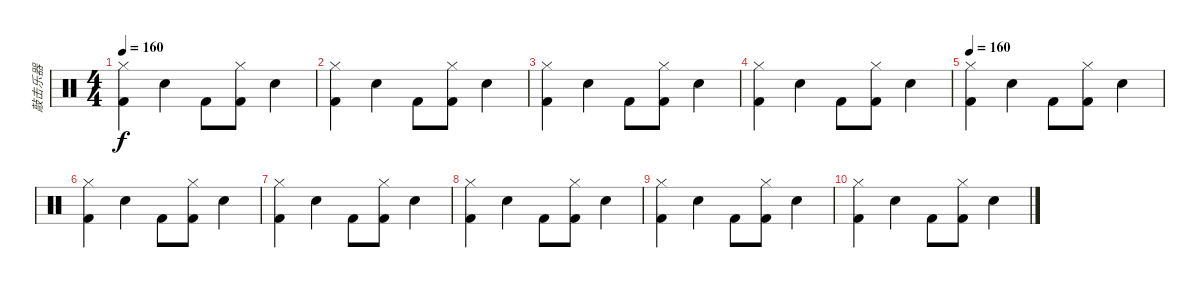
\track ("敲击乐器" "敲击乐器") {instrument percussion}
\staff {score}
\articulation defaults
\ts (4 4)
\tempo 160
\clef neutral
\ks c
("Hi-Hat (closed)" "Kick (hit) 2").4{dy f} "Electric Snare (hit)".4 "Kick (hit) 2".8 ("Hi-Hat (closed)" "Kick (hit) 2").8 "Electric Snare (hit)".4 |
("Hi-Hat (closed)" "Kick (hit) 2").4 "Electric Snare (hit)".4 "Kick (hit) 2".8 ("Hi-Hat (closed)" "Kick (hit) 2").8 "Electric Snare (hit)".4 |
("Hi-Hat (closed)" "Kick (hit) 2").4 "Electric Snare (hit)".4 "Kick (hit) 2".8 ("Hi-Hat (closed)" "Kick (hit) 2").8 "Electric Snare (hit)".4 |
("Hi-Hat (closed)" "Kick (hit) 2").4 "Electric Snare (hit)".4 "Kick (hit) 2".8 ("Hi-Hat (closed)" "Kick (hit) 2").8 "Electric Snare (hit)".4 |
\tempo 160
("Hi-Hat (closed)" "Kick (hit) 2").4 "Electric Snare (hit)".4 "Kick (hit) 2".8 ("Hi-Hat (closed)" "Kick (hit) 2").8 "Electric Snare (hit)".4 |
("Hi-Hat (closed)" "Kick (hit) 2").4 "Electric Snare (hit)".4 "Kick (hit) 2".8 ("Hi-Hat (closed)" "Kick (hit) 2").8 "Electric Snare (hit)".4 |
("Hi-Hat (closed)" "Kick (hit) 2").4 "Electric Snare (hit)".4 "Kick (hit) 2".8 ("Hi-Hat (closed)" "Kick (hit) 2").8 "Electric Snare (hit)".4 |
("Hi-Hat (closed)" "Kick (hit) 2").4 "Electric Snare (hit)".4 "Kick (hit) 2".8 ("Hi-Hat (closed)" "Kick (hit) 2").8 "Electric Snare (hit)".4 |
("Hi-Hat (closed)" "Kick (hit) 2").4 "Electric Snare (hit)".4 "Kick (hit) 2".8 ("Hi-Hat (closed)" "Kick (hit) 2").8 "Electric Snare (hit)".4 |
("Hi-Hat (closed)" "Kick (hit) 2").4 "Electric Snare (hit)".4 "Kick (hit) 2".8 ("Hi-Hat (closed)" "Kick (hit) 2").8 "Electric Snare (hit)".4
